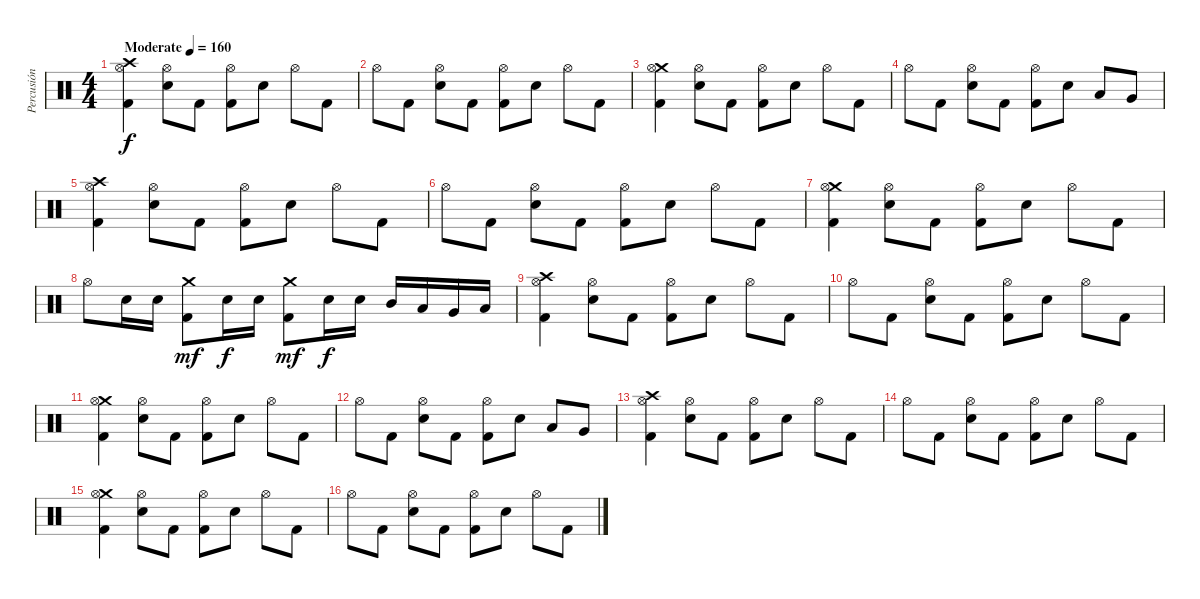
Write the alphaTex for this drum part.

\track ("Percusión" "Percusión") {instrument percussion}
\staff {score}
\articulation defaults
\ts (4 4)
\tempo (160 "Moderate")
\clef neutral
\ks c
("Crash high (hit)" "Hi-Hat (open)" "Kick (hit) 2").4{dy f} ("Hi-Hat (open)" "Electric Snare (hit)").8 "Kick (hit) 2".8 ("Hi-Hat (open)" "Kick (hit) 2").8 "Electric Snare (hit)".8 "Hi-Hat (open)".8 "Kick (hit) 2".8 |
"Hi-Hat (open)".8 "Kick (hit) 2".8 ("Hi-Hat (open)" "Electric Snare (hit)").8 "Kick (hit) 2".8 ("Hi-Hat (open)" "Kick (hit) 2").8 "Electric Snare (hit)".8 "Hi-Hat (open)".8 "Kick (hit) 2".8 |
("Crash medium (hit)" "Hi-Hat (open)" "Kick (hit) 2").4 ("Hi-Hat (open)" "Electric Snare (hit)").8 "Kick (hit) 2".8 ("Hi-Hat (open)" "Kick (hit) 2").8 "Electric Snare (hit)".8 "Hi-Hat (open)".8 "Kick (hit) 2".8 |
"Hi-Hat (open)".8 "Kick (hit) 2".8 ("Hi-Hat (open)" "Electric Snare (hit)").8 "Kick (hit) 2".8 ("Hi-Hat (open)" "Kick (hit) 2").8 "Electric Snare (hit)".8 "Low Tom (hit)".8 "Very Low Tom (hit)".8 |
("Crash high (hit)" "Hi-Hat (open)" "Kick (hit) 2").4 ("Hi-Hat (open)" "Electric Snare (hit)").8 "Kick (hit) 2".8 ("Hi-Hat (open)" "Kick (hit) 2").8 "Electric Snare (hit)".8 "Hi-Hat (open)".8 "Kick (hit) 2".8 |
"Hi-Hat (open)".8 "Kick (hit) 2".8 ("Hi-Hat (open)" "Electric Snare (hit)").8 "Kick (hit) 2".8 ("Hi-Hat (open)" "Kick (hit) 2").8 "Electric Snare (hit)".8 "Hi-Hat (open)".8 "Kick (hit) 2".8 |
("Crash medium (hit)" "Hi-Hat (open)" "Kick (hit) 2").4 ("Hi-Hat (open)" "Electric Snare (hit)").8 "Kick (hit) 2".8 ("Hi-Hat (open)" "Kick (hit) 2").8 "Electric Snare (hit)".8 "Hi-Hat (open)".8 "Kick (hit) 2".8 |
"Hi-Hat (open)".8 "Electric Snare (hit)".16 "Electric Snare (hit)".16 ("Crash medium (hit)" "Kick (hit) 2").8{dy mf} "Electric Snare (hit)".16{dy f} "Electric Snare (hit)".16 ("Crash medium (hit)" "Kick (hit) 2").8{dy mf} "Electric Snare (hit)".16{dy f} "Electric Snare (hit)".16 "Mid Tom (hit)".16 "Low Tom (hit)".16 "Very Low Tom (hit)".16 "Low Floor Tom (hit)".16 |
("Crash high (hit)" "Hi-Hat (open)" "Kick (hit) 2").4 ("Hi-Hat (open)" "Electric Snare (hit)").8 "Kick (hit) 2".8 ("Hi-Hat (open)" "Kick (hit) 2").8 "Electric Snare (hit)".8 "Hi-Hat (open)".8 "Kick (hit) 2".8 |
"Hi-Hat (open)".8 "Kick (hit) 2".8 ("Hi-Hat (open)" "Electric Snare (hit)").8 "Kick (hit) 2".8 ("Hi-Hat (open)" "Kick (hit) 2").8 "Electric Snare (hit)".8 "Hi-Hat (open)".8 "Kick (hit) 2".8 |
("Crash medium (hit)" "Hi-Hat (open)" "Kick (hit) 2").4 ("Hi-Hat (open)" "Electric Snare (hit)").8 "Kick (hit) 2".8 ("Hi-Hat (open)" "Kick (hit) 2").8 "Electric Snare (hit)".8 "Hi-Hat (open)".8 "Kick (hit) 2".8 |
"Hi-Hat (open)".8 "Kick (hit) 2".8 ("Hi-Hat (open)" "Electric Snare (hit)").8 "Kick (hit) 2".8 ("Hi-Hat (open)" "Kick (hit) 2").8 "Electric Snare (hit)".8 "Low Tom (hit)".8 "Very Low Tom (hit)".8 |
("Crash high (hit)" "Hi-Hat (open)" "Kick (hit) 2").4 ("Hi-Hat (open)" "Electric Snare (hit)").8 "Kick (hit) 2".8 ("Hi-Hat (open)" "Kick (hit) 2").8 "Electric Snare (hit)".8 "Hi-Hat (open)".8 "Kick (hit) 2".8 |
"Hi-Hat (open)".8 "Kick (hit) 2".8 ("Hi-Hat (open)" "Electric Snare (hit)").8 "Kick (hit) 2".8 ("Hi-Hat (open)" "Kick (hit) 2").8 "Electric Snare (hit)".8 "Hi-Hat (open)".8 "Kick (hit) 2".8 |
("Crash medium (hit)" "Hi-Hat (open)" "Kick (hit) 2").4 ("Hi-Hat (open)" "Electric Snare (hit)").8 "Kick (hit) 2".8 ("Hi-Hat (open)" "Kick (hit) 2").8 "Electric Snare (hit)".8 "Hi-Hat (open)".8 "Kick (hit) 2".8 |
"Hi-Hat (open)".8 "Kick (hit) 2".8 ("Hi-Hat (open)" "Electric Snare (hit)").8 "Kick (hit) 2".8 ("Hi-Hat (open)" "Kick (hit) 2").8 "Electric Snare (hit)".8 "Hi-Hat (open)".8 "Kick (hit) 2".8
